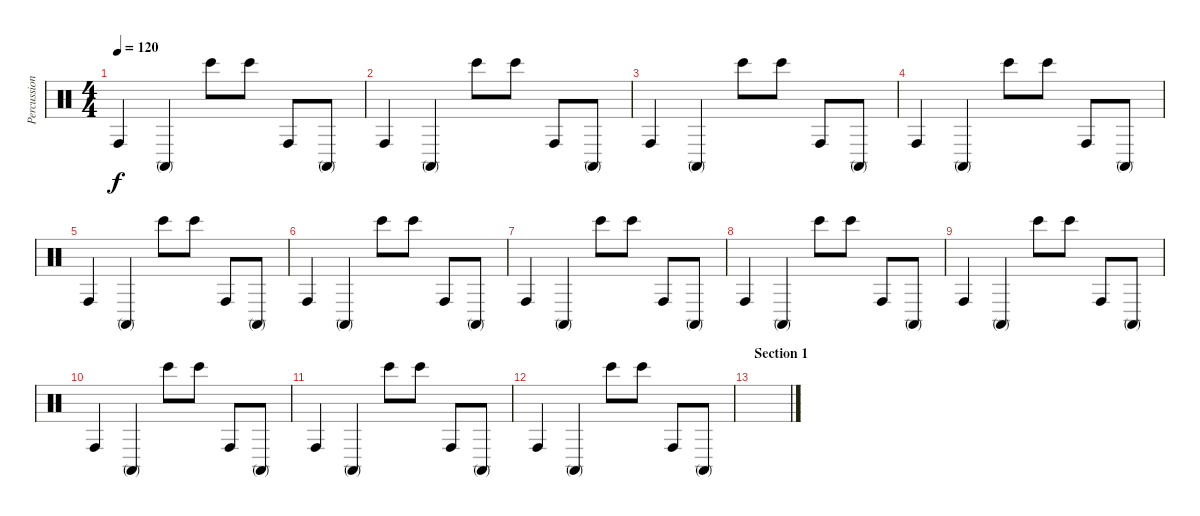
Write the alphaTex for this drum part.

\track ("Percussions" "Percussion") {instrument percussion}
\staff {score}
\articulation defaults
\ts (4 4)
\tempo 120
\clef neutral
\ks c "Conga high (hit)".4{dy f} "Conga high (mute)".4 "Bongo High (hit)".8 "Bongo High (hit)".8 "Conga high (hit)".8 "Conga high (mute)".8
|
"Conga high (hit)".4 "Conga high (mute)".4 "Bongo High (hit)".8 "Bongo High (hit)".8 "Conga high (hit)".8 "Conga high (mute)".8 |
"Conga high (hit)".4 "Conga high (mute)".4 "Bongo High (hit)".8 "Bongo High (hit)".8 "Conga high (hit)".8 "Conga high (mute)".8 |
"Conga high (hit)".4 "Conga high (mute)".4 "Bongo High (hit)".8 "Bongo High (hit)".8 "Conga high (hit)".8 "Conga high (mute)".8 |
"Conga high (hit)".4 "Conga high (mute)".4 "Bongo High (hit)".8 "Bongo High (hit)".8 "Conga high (hit)".8 "Conga high (mute)".8 |
"Conga high (hit)".4 "Conga high (mute)".4 "Bongo High (hit)".8 "Bongo High (hit)".8 "Conga high (hit)".8 "Conga high (mute)".8 |
"Conga high (hit)".4 "Conga high (mute)".4 "Bongo High (hit)".8 "Bongo High (hit)".8 "Conga high (hit)".8 "Conga high (mute)".8 |
"Conga high (hit)".4 "Conga high (mute)".4 "Bongo High (hit)".8 "Bongo High (hit)".8 "Conga high (hit)".8 "Conga high (mute)".8 |
"Conga high (hit)".4 "Conga high (mute)".4 "Bongo High (hit)".8 "Bongo High (hit)".8 "Conga high (hit)".8 "Conga high (mute)".8 |
"Conga high (hit)".4 "Conga high (mute)".4 "Bongo High (hit)".8 "Bongo High (hit)".8 "Conga high (hit)".8 "Conga high (mute)".8 |
"Conga high (hit)".4 "Conga high (mute)".4 "Bongo High (hit)".8 "Bongo High (hit)".8 "Conga high (hit)".8 "Conga high (mute)".8 |
"Conga high (hit)".4 "Conga high (mute)".4 "Bongo High (hit)".8 "Bongo High (hit)".8 "Conga high (hit)".8 "Conga high (mute)".8 |
\section ("" "Section 1")
